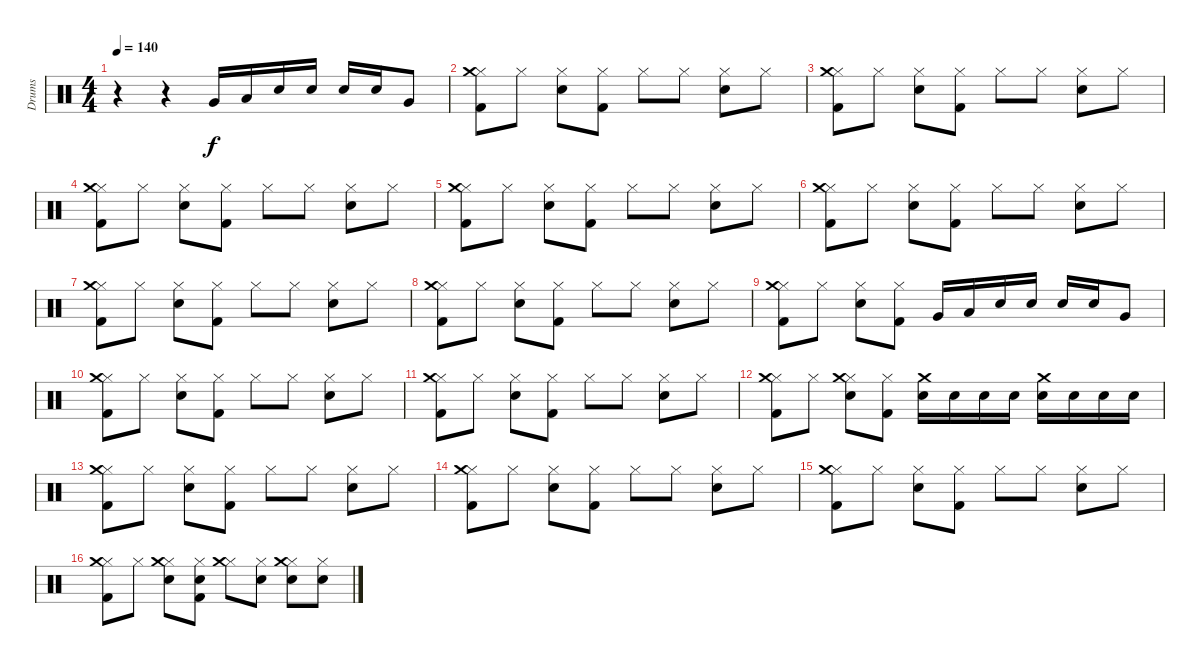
\track ("Drums" "Drums") {instrument percussion}
\staff {score}
\articulation defaults
\ts (4 4)
\tempo 140
\clef neutral
\ks c
r.4{dy f} r.4 "Very Low Tom (hit)".16 "Low Tom (hit)".16 "Electric Snare (hit)".16 "Snare (hit) 2".16 "Electric Snare (hit)".16 "Snare (hit) 2".16 "Very Low Tom (hit)".8 |
("Hi-Hat (closed)" "Kick (hit) 2" "Crash medium (hit)").8 "Hi-Hat (closed)".8 ("Hi-Hat (closed)" "Electric Snare (hit)").8 ("Hi-Hat (closed)" "Kick (hit) 2").8 "Hi-Hat (closed)".8 "Hi-Hat (closed)".8 ("Hi-Hat (closed)" "Electric Snare (hit)").8 "Hi-Hat (closed)".8 |
("Hi-Hat (closed)" "Kick (hit) 2" "Crash medium (hit)").8 "Hi-Hat (closed)".8 ("Hi-Hat (closed)" "Electric Snare (hit)").8 ("Hi-Hat (closed)" "Kick (hit) 2").8 "Hi-Hat (closed)".8 "Hi-Hat (closed)".8 ("Hi-Hat (closed)" "Electric Snare (hit)").8 "Hi-Hat (closed)".8 |
("Hi-Hat (closed)" "Kick (hit) 2" "Crash medium (hit)").8 "Hi-Hat (closed)".8 ("Hi-Hat (closed)" "Electric Snare (hit)").8 ("Hi-Hat (closed)" "Kick (hit) 2").8 "Hi-Hat (closed)".8 "Hi-Hat (closed)".8 ("Hi-Hat (closed)" "Electric Snare (hit)").8 "Hi-Hat (closed)".8 |
("Hi-Hat (closed)" "Kick (hit) 2" "Crash medium (hit)").8 "Hi-Hat (closed)".8 ("Hi-Hat (closed)" "Electric Snare (hit)").8 ("Hi-Hat (closed)" "Kick (hit) 2").8 "Hi-Hat (closed)".8 "Hi-Hat (closed)".8 ("Hi-Hat (closed)" "Electric Snare (hit)").8 "Hi-Hat (closed)".8 |
("Hi-Hat (closed)" "Kick (hit) 2" "Crash medium (hit)").8 "Hi-Hat (closed)".8 ("Hi-Hat (closed)" "Electric Snare (hit)").8 ("Hi-Hat (closed)" "Kick (hit) 2").8 "Hi-Hat (closed)".8 "Hi-Hat (closed)".8 ("Hi-Hat (closed)" "Electric Snare (hit)").8 "Hi-Hat (closed)".8 |
("Hi-Hat (closed)" "Kick (hit) 2" "Crash medium (hit)").8 "Hi-Hat (closed)".8 ("Hi-Hat (closed)" "Electric Snare (hit)").8 ("Hi-Hat (closed)" "Kick (hit) 2").8 "Hi-Hat (closed)".8 "Hi-Hat (closed)".8 ("Hi-Hat (closed)" "Electric Snare (hit)").8 "Hi-Hat (closed)".8 |
("Hi-Hat (closed)" "Kick (hit) 2" "Crash medium (hit)").8 "Hi-Hat (closed)".8 ("Hi-Hat (closed)" "Electric Snare (hit)").8 ("Hi-Hat (closed)" "Kick (hit) 2").8 "Hi-Hat (closed)".8 "Hi-Hat (closed)".8 ("Hi-Hat (closed)" "Electric Snare (hit)").8 "Hi-Hat (closed)".8 |
("Hi-Hat (closed)" "Kick (hit) 2" "Crash medium (hit)").8 "Hi-Hat (closed)".8 ("Hi-Hat (closed)" "Electric Snare (hit)").8 ("Hi-Hat (closed)" "Kick (hit) 2").8 "Very Low Tom (hit)".16 "Low Tom (hit)".16 "Electric Snare (hit)".16 "Snare (hit) 2".16 "Electric Snare (hit)".16 "Snare (hit) 2".16 "Very Low Tom (hit)".8 |
("Hi-Hat (closed)" "Kick (hit) 2" "Crash medium (hit)").8 "Hi-Hat (closed)".8 ("Hi-Hat (closed)" "Electric Snare (hit)").8 ("Hi-Hat (closed)" "Kick (hit) 2").8 "Hi-Hat (closed)".8 "Hi-Hat (closed)".8 ("Hi-Hat (closed)" "Electric Snare (hit)").8 "Hi-Hat (closed)".8 |
("Hi-Hat (closed)" "Kick (hit) 2" "Crash medium (hit)").8 "Hi-Hat (closed)".8 ("Hi-Hat (closed)" "Electric Snare (hit)").8 ("Hi-Hat (closed)" "Kick (hit) 2").8 "Hi-Hat (closed)".8 "Hi-Hat (closed)".8 ("Hi-Hat (closed)" "Electric Snare (hit)").8 "Hi-Hat (closed)".8 |
("Hi-Hat (closed)" "Kick (hit) 2" "Crash medium (hit)").8 "Hi-Hat (closed)".8 ("Hi-Hat (closed)" "Electric Snare (hit)" "Crash medium (hit)").8 ("Hi-Hat (closed)" "Kick (hit) 2").8 ("Electric Snare (hit)" "Crash medium (hit)").16 "Snare (hit) 2".16 "Electric Snare (hit)".16 "Snare (hit) 2".16 ("Electric Snare (hit)" "Crash medium (hit)").16 "Snare (hit) 2".16 "Electric Snare (hit)".16 "Snare (hit) 2".16 |
("Hi-Hat (closed)" "Kick (hit) 2" "Crash medium (hit)").8 "Hi-Hat (closed)".8 ("Hi-Hat (closed)" "Electric Snare (hit)").8 ("Hi-Hat (closed)" "Kick (hit) 2").8 "Hi-Hat (closed)".8 "Hi-Hat (closed)".8 ("Hi-Hat (closed)" "Electric Snare (hit)").8 "Hi-Hat (closed)".8 |
("Hi-Hat (closed)" "Kick (hit) 2" "Crash medium (hit)").8 "Hi-Hat (closed)".8 ("Hi-Hat (closed)" "Electric Snare (hit)").8 ("Hi-Hat (closed)" "Kick (hit) 2").8 "Hi-Hat (closed)".8 "Hi-Hat (closed)".8 ("Hi-Hat (closed)" "Electric Snare (hit)").8 "Hi-Hat (closed)".8 |
("Hi-Hat (closed)" "Kick (hit) 2" "Crash medium (hit)").8 "Hi-Hat (closed)".8 ("Hi-Hat (closed)" "Electric Snare (hit)").8 ("Hi-Hat (closed)" "Kick (hit) 2").8 "Hi-Hat (closed)".8 "Hi-Hat (closed)".8 ("Hi-Hat (closed)" "Electric Snare (hit)").8 "Hi-Hat (closed)".8 |
("Hi-Hat (closed)" "Kick (hit) 2" "Crash medium (hit)").8 "Hi-Hat (closed)".8 ("Hi-Hat (closed)" "Electric Snare (hit)" "Crash medium (hit)").8 ("Hi-Hat (closed)" "Kick (hit) 2" "Snare (hit) 2").8 ("Hi-Hat (closed)" "Crash medium (hit)").8 ("Hi-Hat (closed)" "Snare (hit) 2").8 ("Hi-Hat (closed)" "Electric Snare (hit)" "Crash medium (hit)").8 ("Hi-Hat (closed)" "Snare (hit) 2").8
